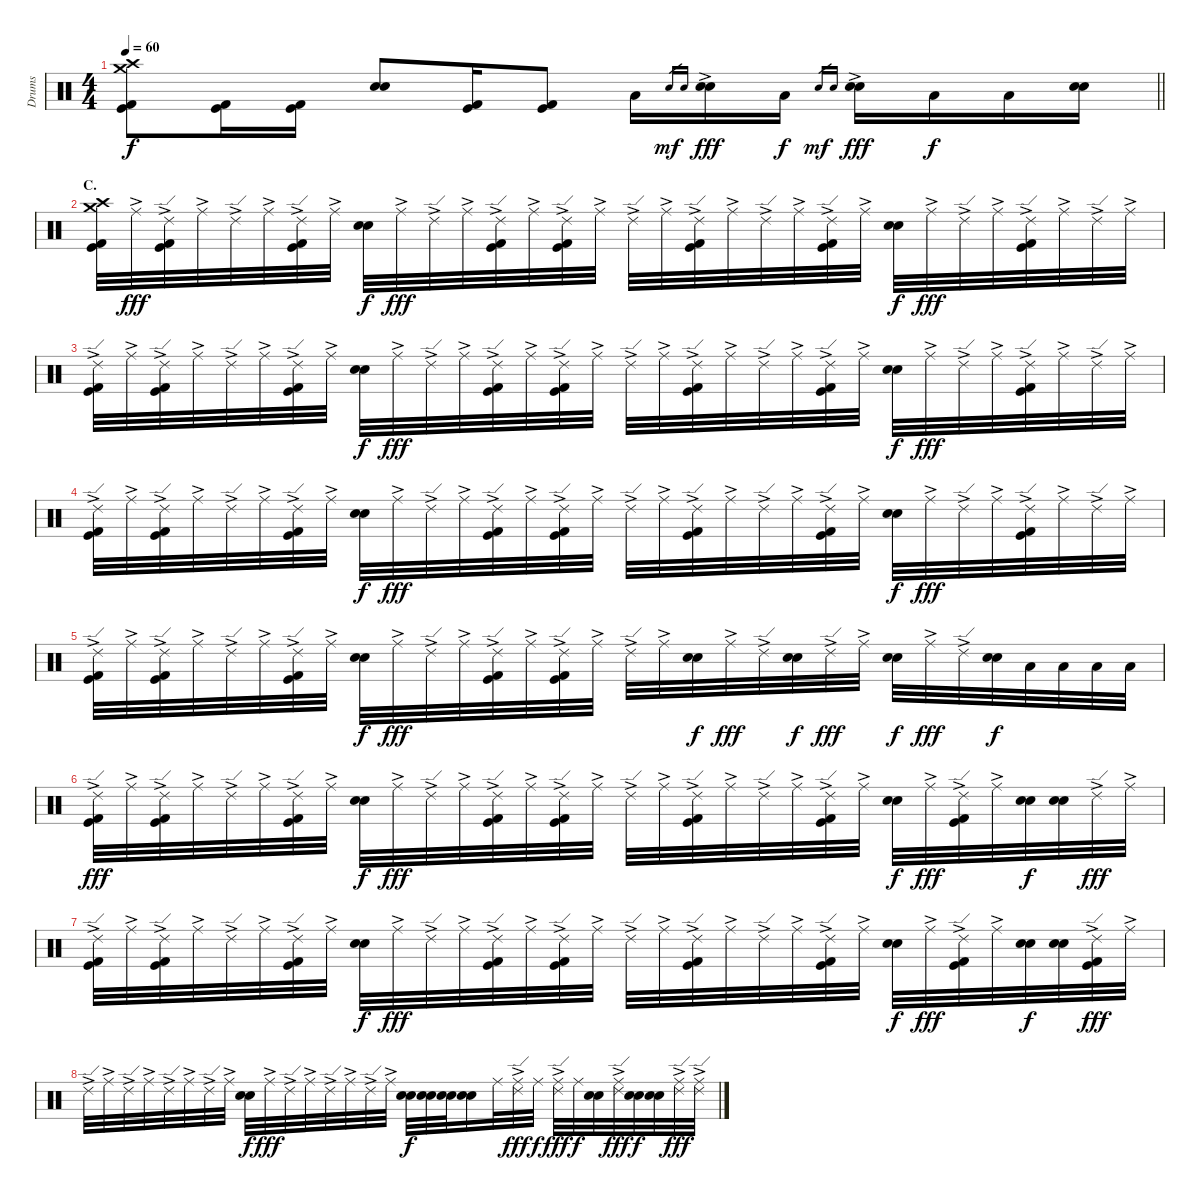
\track ("Drums" "Drums") {instrument percussion}
\staff {score}
\articulation defaults
\ts (4 4)
\tempo 60
\clef neutral
\barLineRight lightlight
\ks c
("Crash high (hit)" "Crash medium (hit)" "Kick (hit)" "Kick (hit) 2").8{dy f} ("Kick (hit)" "Kick (hit) 2").16 ("Kick (hit)" "Kick (hit) 2").16 ("Electric Snare (hit)" "Snare (hit) 2").8 ("Kick (hit)" "Kick (hit) 2").16 ("Kick (hit)" "Kick (hit) 2").8 "Low Floor Tom (hit)".16 "Electric Snare (hit)".16{gr dy mf} "Snare (hit) 2".16{gr} ("Electric Snare (hit)"{ac} "Snare (hit) 2"{ac}).16{dy fff} "Low Tom (hit)".16{dy f} "Electric Snare (hit)".16{gr dy mf} "Snare (hit) 2".16{gr} ("Electric Snare (hit)"{ac} "Snare (hit) 2"{ac}).16{dy fff} "Low Tom (hit)".16{dy f} "Low Tom (hit)".16 ("Electric Snare (hit)" "Snare (hit) 2").16 |
\section ("" "C.")
("Crash medium (hit)" "Crash high (hit)" "Kick (hit)" "Kick (hit) 2").32 "Ride (middle)"{ac}.32{dy fff} ("Ride (edge) 2"{ac} "Kick (hit)" "Kick (hit) 2").32 "Ride (middle)"{ac}.32 "Ride (edge) 2"{ac}.32 "Ride (middle)"{ac}.32 ("Ride (edge) 2"{ac} "Kick (hit)" "Kick (hit) 2").32 "Ride (middle)"{ac}.32 ("Electric Snare (hit)" "Snare (hit) 2").32{dy f} "Ride (middle)"{ac}.32{dy fff} "Ride (edge) 2"{ac}.32 "Ride (middle)"{ac}.32 ("Ride (edge) 2"{ac} "Kick (hit)" "Kick (hit) 2").32 "Ride (middle)"{ac}.32 ("Ride (edge) 2"{ac} "Kick (hit)" "Kick (hit) 2").32 "Ride (middle)"{ac}.32 "Ride (edge) 2"{ac}.32 "Ride (middle)"{ac}.32 ("Ride (edge) 2"{ac} "Kick (hit)" "Kick (hit) 2").32 "Ride (middle)"{ac}.32 "Ride (edge) 2"{ac}.32 "Ride (middle)"{ac}.32 ("Ride (edge) 2"{ac} "Kick (hit)" "Kick (hit) 2").32 "Ride (middle)"{ac}.32 ("Electric Snare (hit)" "Snare (hit) 2").32{dy f} "Ride (middle)"{ac}.32{dy fff} "Ride (edge) 2"{ac}.32 "Ride (middle)"{ac}.32 ("Ride (edge) 2"{ac} "Kick (hit)" "Kick (hit) 2").32 "Ride (middle)"{ac}.32 "Ride (edge) 2"{ac}.32 "Ride (middle)"{ac}.32 |
("Ride (edge) 2"{ac} "Kick (hit)" "Kick (hit) 2").32 "Ride (middle)"{ac}.32 ("Ride (edge) 2"{ac} "Kick (hit)" "Kick (hit) 2").32 "Ride (middle)"{ac}.32 "Ride (edge) 2"{ac}.32 "Ride (middle)"{ac}.32 ("Ride (edge) 2"{ac} "Kick (hit)" "Kick (hit) 2").32 "Ride (middle)"{ac}.32 ("Snare (hit) 2" "Electric Snare (hit)").32{dy f} "Ride (middle)"{ac}.32{dy fff} "Ride (edge) 2"{ac}.32 "Ride (middle)"{ac}.32 ("Ride (edge) 2"{ac} "Kick (hit)" "Kick (hit) 2").32 "Ride (middle)"{ac}.32 ("Ride (edge) 2"{ac} "Kick (hit)" "Kick (hit) 2").32 "Ride (middle)"{ac}.32 "Ride (edge) 2"{ac}.32 "Ride (middle)"{ac}.32 ("Ride (edge) 2"{ac} "Kick (hit)" "Kick (hit) 2").32 "Ride (middle)"{ac}.32 "Ride (edge) 2"{ac}.32 "Ride (middle)"{ac}.32 ("Ride (edge) 2"{ac} "Kick (hit)" "Kick (hit) 2").32 "Ride (middle)"{ac}.32 ("Snare (hit) 2" "Electric Snare (hit)").32{dy f} "Ride (middle)"{ac}.32{dy fff} "Ride (edge) 2"{ac}.32 "Ride (middle)"{ac}.32 ("Ride (edge) 2"{ac} "Kick (hit)" "Kick (hit) 2").32 "Ride (middle)"{ac}.32 "Ride (edge) 2"{ac}.32 "Ride (middle)"{ac}.32 |
("Ride (edge) 2"{ac} "Kick (hit)" "Kick (hit) 2").32 "Ride (middle)"{ac}.32 ("Ride (edge) 2"{ac} "Kick (hit)" "Kick (hit) 2").32 "Ride (middle)"{ac}.32 "Ride (edge) 2"{ac}.32 "Ride (middle)"{ac}.32 ("Ride (edge) 2"{ac} "Kick (hit)" "Kick (hit) 2").32 "Ride (middle)"{ac}.32 ("Snare (hit) 2" "Electric Snare (hit)").32{dy f} "Ride (middle)"{ac}.32{dy fff} "Ride (edge) 2"{ac}.32 "Ride (middle)"{ac}.32 ("Ride (edge) 2"{ac} "Kick (hit)" "Kick (hit) 2").32 "Ride (middle)"{ac}.32 ("Ride (edge) 2"{ac} "Kick (hit)" "Kick (hit) 2").32 "Ride (middle)"{ac}.32 "Ride (edge) 2"{ac}.32 "Ride (middle)"{ac}.32 ("Ride (edge) 2"{ac} "Kick (hit)" "Kick (hit) 2").32 "Ride (middle)"{ac}.32 "Ride (edge) 2"{ac}.32 "Ride (middle)"{ac}.32 ("Ride (edge) 2"{ac} "Kick (hit)" "Kick (hit) 2").32 "Ride (middle)"{ac}.32 ("Snare (hit) 2" "Electric Snare (hit)").32{dy f} "Ride (middle)"{ac}.32{dy fff} "Ride (edge) 2"{ac}.32 "Ride (middle)"{ac}.32 ("Ride (edge) 2"{ac} "Kick (hit)" "Kick (hit) 2").32 "Ride (middle)"{ac}.32 "Ride (edge) 2"{ac}.32 "Ride (middle)"{ac}.32 |
("Ride (edge) 2"{ac} "Kick (hit)" "Kick (hit) 2").32 "Ride (middle)"{ac}.32 ("Ride (edge) 2"{ac} "Kick (hit)" "Kick (hit) 2").32 "Ride (middle)"{ac}.32 "Ride (edge) 2"{ac}.32 "Ride (middle)"{ac}.32 ("Ride (edge) 2"{ac} "Kick (hit)" "Kick (hit) 2").32 "Ride (middle)"{ac}.32 ("Snare (hit) 2" "Electric Snare (hit)").32{dy f} "Ride (middle)"{ac}.32{dy fff} "Ride (edge) 2"{ac}.32 "Ride (middle)"{ac}.32 ("Ride (edge) 2"{ac} "Kick (hit)" "Kick (hit) 2").32 "Ride (middle)"{ac}.32 ("Ride (edge) 2"{ac} "Kick (hit)" "Kick (hit) 2").32 "Ride (middle)"{ac}.32 "Ride (edge) 2"{ac}.32 "Ride (middle)"{ac}.32 ("Snare (hit) 2" "Electric Snare (hit)").32{dy f} "Ride (middle)"{ac}.32{dy fff} "Ride (edge) 2"{ac}.32 ("Snare (hit) 2" "Electric Snare (hit)").32{dy f} "Ride (edge) 2"{ac}.32{dy fff} "Ride (middle)"{ac}.32 ("Snare (hit) 2" "Electric Snare (hit)").32{dy f} "Ride (middle)"{ac}.32{dy fff} "Ride (edge) 2"{ac}.32 ("Snare (hit) 2" "Electric Snare (hit)").32{dy f} "Low Tom (hit)".32 "Low Tom (hit)".32 "Low Floor Tom (hit)".32 "Low Floor Tom (hit)".32 |
("Ride (edge) 2"{ac} "Kick (hit)" "Kick (hit) 2").32{dy fff} "Ride (middle)"{ac}.32 ("Ride (edge) 2"{ac} "Kick (hit)" "Kick (hit) 2").32 "Ride (middle)"{ac}.32 "Ride (edge) 2"{ac}.32 "Ride (middle)"{ac}.32 ("Ride (edge) 2"{ac} "Kick (hit)" "Kick (hit) 2").32 "Ride (middle)"{ac}.32 ("Snare (hit) 2" "Electric Snare (hit)").32{dy f} "Ride (middle)"{ac}.32{dy fff} "Ride (edge) 2"{ac}.32 "Ride (middle)"{ac}.32 ("Ride (edge) 2"{ac} "Kick (hit)" "Kick (hit) 2").32 "Ride (middle)"{ac}.32 ("Ride (edge) 2"{ac} "Kick (hit)" "Kick (hit) 2").32 "Ride (middle)"{ac}.32 "Ride (edge) 2"{ac}.32 "Ride (middle)"{ac}.32 ("Ride (edge) 2"{ac} "Kick (hit)" "Kick (hit) 2").32 "Ride (middle)"{ac}.32 "Ride (edge) 2"{ac}.32 "Ride (middle)"{ac}.32 ("Ride (edge) 2"{ac} "Kick (hit)" "Kick (hit) 2").32 "Ride (middle)"{ac}.32 ("Snare (hit) 2" "Electric Snare (hit)").32{dy f} "Ride (middle)"{ac}.32{dy fff} ("Ride (edge) 2"{ac} "Kick (hit)" "Kick (hit) 2").32 "Ride (middle)"{ac}.32 ("Snare (hit) 2" "Electric Snare (hit)").32{dy f} ("Snare (hit) 2" "Electric Snare (hit)").32 "Ride (edge) 2"{ac}.32{dy fff} "Ride (middle)"{ac}.32 |
("Ride (edge) 2"{ac} "Kick (hit)" "Kick (hit) 2").32 "Ride (middle)"{ac}.32 ("Ride (edge) 2"{ac} "Kick (hit)" "Kick (hit) 2").32 "Ride (middle)"{ac}.32 "Ride (edge) 2"{ac}.32 "Ride (middle)"{ac}.32 ("Ride (edge) 2"{ac} "Kick (hit)" "Kick (hit) 2").32 "Ride (middle)"{ac}.32 ("Snare (hit) 2" "Electric Snare (hit)").32{dy f} "Ride (middle)"{ac}.32{dy fff} "Ride (edge) 2"{ac}.32 "Ride (middle)"{ac}.32 ("Ride (edge) 2"{ac} "Kick (hit)" "Kick (hit) 2").32 "Ride (middle)"{ac}.32 ("Ride (edge) 2"{ac} "Kick (hit)" "Kick (hit) 2").32 "Ride (middle)"{ac}.32 "Ride (edge) 2"{ac}.32 "Ride (middle)"{ac}.32 ("Ride (edge) 2"{ac} "Kick (hit)" "Kick (hit) 2").32 "Ride (middle)"{ac}.32 "Ride (edge) 2"{ac}.32 "Ride (middle)"{ac}.32 ("Ride (edge) 2"{ac} "Kick (hit)" "Kick (hit) 2").32 "Ride (middle)"{ac}.32 ("Snare (hit) 2" "Electric Snare (hit)").32{dy f} "Ride (middle)"{ac}.32{dy fff} ("Ride (edge) 2"{ac} "Kick (hit)" "Kick (hit) 2").32 "Ride (middle)"{ac}.32 ("Snare (hit) 2" "Electric Snare (hit)").32{dy f} ("Snare (hit) 2" "Electric Snare (hit)").32 ("Ride (edge) 2"{ac} "Kick (hit)" "Kick (hit) 2").32{dy fff} "Ride (middle)"{ac}.32 |
"Ride (edge) 2"{ac}.32 "Ride (middle)"{ac}.32 "Ride (edge) 2"{ac}.32 "Ride (middle)"{ac}.32 "Ride (edge) 2"{ac}.32 "Ride (middle)"{ac}.32 "Ride (edge) 2"{ac}.32 "Ride (middle)"{ac}.32 ("Electric Snare (hit)" "Snare (hit) 2").32{dy f} "Ride (middle)"{ac}.32{dy fff} "Ride (edge) 2"{ac}.32 "Ride (middle)"{ac}.32 "Ride (edge) 2"{ac}.32 "Ride (middle)"{ac}.32 "Ride (edge) 2"{ac}.32 "Ride (middle)"{ac}.32 ("Snare (hit) 2" "Electric Snare (hit)").32{dy f} ("Snare (hit) 2" "Electric Snare (hit)").32 ("Snare (hit) 2" "Electric Snare (hit)").32 ("Snare (hit) 2" "Electric Snare (hit)").16 "Ride (middle)".32 ("Ride (edge) 2"{ac} "Ride (middle)"{ac}).32{dy fff} "Ride (middle)".32{dy f} ("Ride (edge) 2"{ac} "Ride (middle)"{ac}).32{dy fff} "Ride (middle)".32{dy f} ("Snare (hit) 2" "Electric Snare (hit)").32 ("Ride (edge) 2"{ac} "Ride (middle)"{ac}).32{dy fff} ("Snare (hit) 2" "Electric Snare (hit)").32{dy f} ("Snare (hit) 2" "Electric Snare (hit)").32 ("Ride (edge) 2"{ac} "Ride (middle)"{ac}).32{dy fff} ("Ride (edge) 2"{ac} "Ride (middle)"{ac}).32
